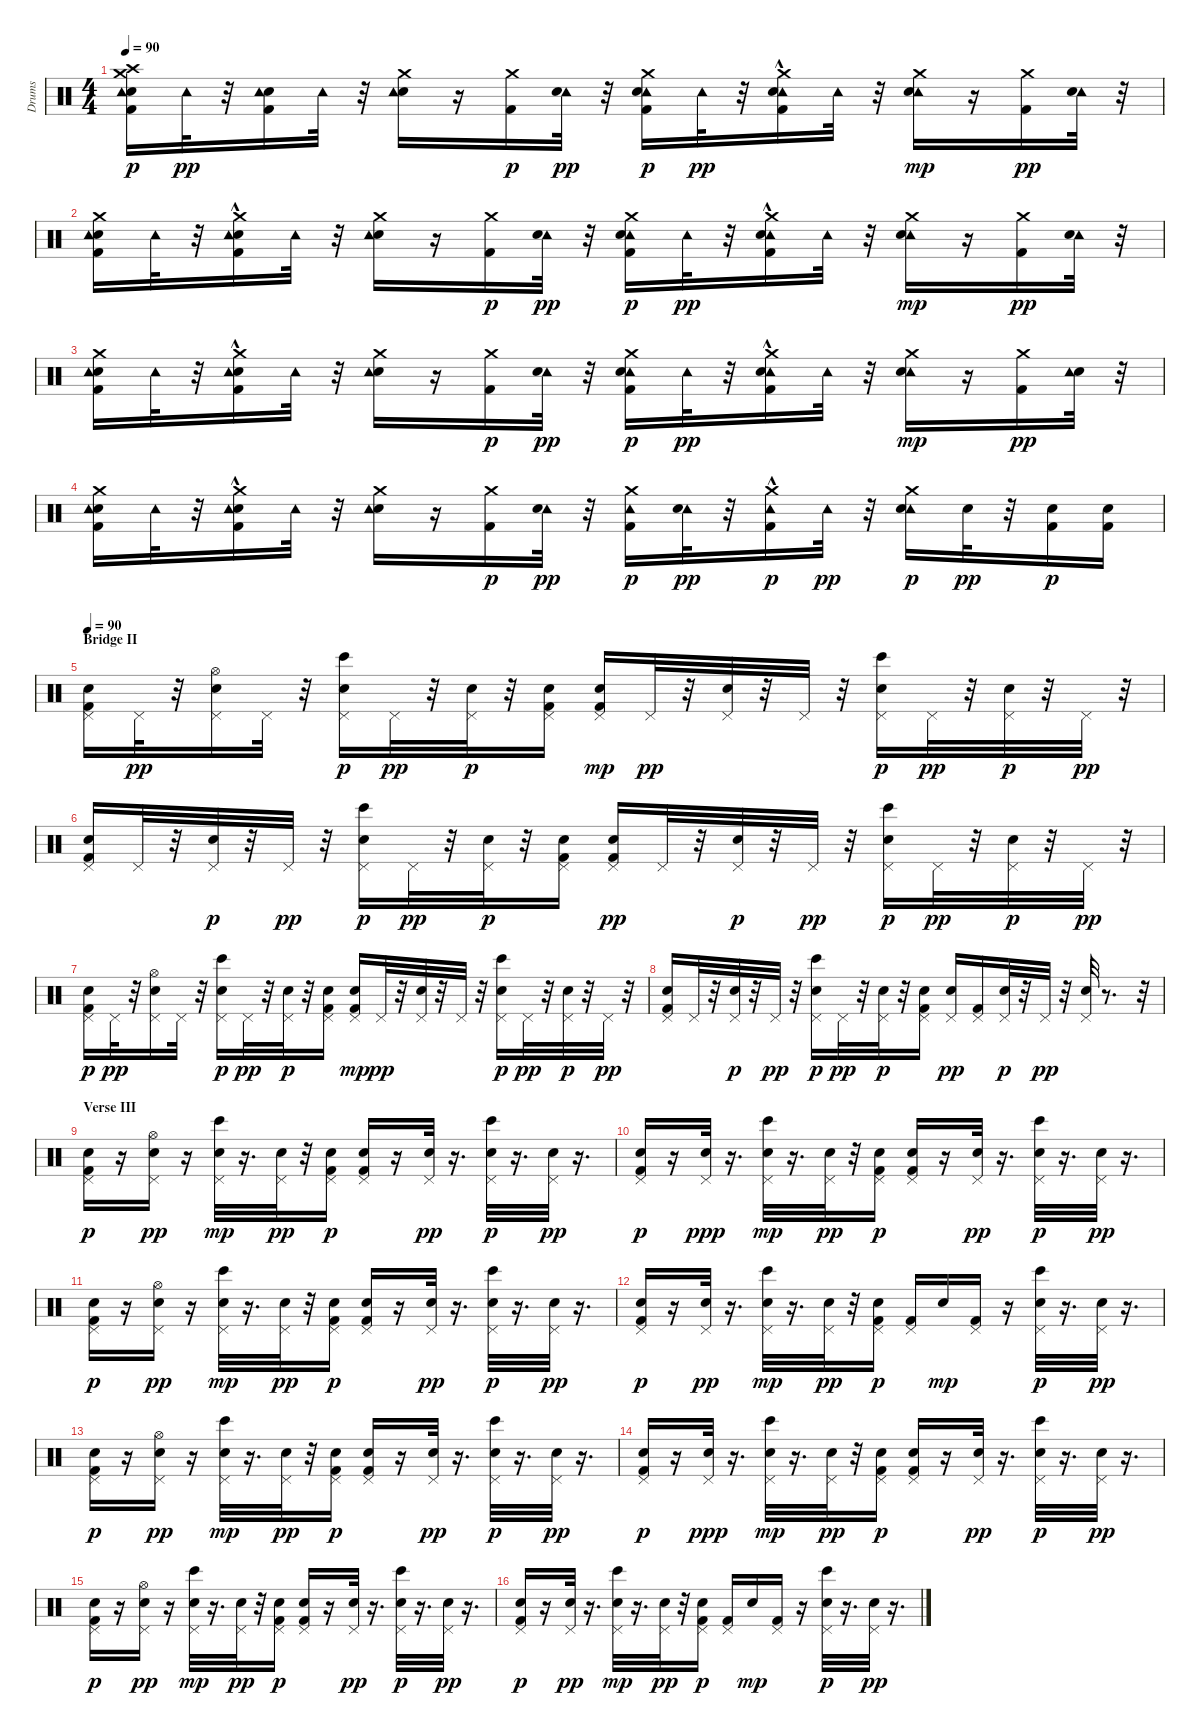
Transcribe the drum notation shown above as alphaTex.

\track ("Drums" "Drums") {instrument percussion}
\staff {score}
\articulation defaults
\ts (4 4)
\tempo 90
\clef neutral
\ks c
("Electric Snare (hit)" "Tambourine (hit)" "Kick (hit) 2" "Crash high (hit)" "Crash medium (hit)").16{dy p} "Tambourine (hit)".32{dy pp} r.32 ("Electric Snare (hit)" "Tambourine (hit)" "Kick (hit) 2").16 "Tambourine (hit)".32 r.32 ("Crash medium (hit)" "Electric Snare (hit)" "Tambourine (hit)").16 r.16 ("Crash medium (hit)" "Kick (hit) 2").16{dy p} ("Tambourine (hit)" "Electric Snare (hit)").32{dy pp} r.32 ("Crash medium (hit)" "Tambourine (hit)" "Electric Snare (hit)" "Kick (hit) 2").16{dy p} "Tambourine (hit)".32{dy pp} r.32 ("Crash medium (hit)"{hac} "Tambourine (hit)" "Electric Snare (hit)" "Kick (hit) 2").16 "Tambourine (hit)".32 r.32 ("Crash medium (hit)" "Tambourine (hit)" "Electric Snare (hit)").16{dy mp} r.16 ("Crash medium (hit)" "Kick (hit) 2").16{dy pp} ("Tambourine (hit)" "Electric Snare (hit)").32 r.32 |
("Crash medium (hit)" "Electric Snare (hit)" "Kick (hit) 2" "Tambourine (hit)").16 "Tambourine (hit)".32 r.32 ("Crash medium (hit)"{hac} "Electric Snare (hit)" "Kick (hit) 2" "Tambourine (hit)").16 "Tambourine (hit)".32 r.32 ("Crash medium (hit)" "Electric Snare (hit)" "Tambourine (hit)").16 r.16 ("Crash medium (hit)" "Kick (hit) 2").16{dy p} ("Tambourine (hit)" "Electric Snare (hit)").32{dy pp} r.32 ("Crash medium (hit)" "Tambourine (hit)" "Electric Snare (hit)" "Kick (hit) 2").16{dy p} "Tambourine (hit)".32{dy pp} r.32 ("Crash medium (hit)"{hac} "Tambourine (hit)" "Electric Snare (hit)" "Kick (hit) 2").16 "Tambourine (hit)".32 r.32 ("Crash medium (hit)" "Tambourine (hit)" "Electric Snare (hit)").16{dy mp} r.16 ("Crash medium (hit)" "Kick (hit) 2").16{dy pp} ("Tambourine (hit)" "Electric Snare (hit)").32 r.32 |
("Crash medium (hit)" "Kick (hit) 2" "Electric Snare (hit)" "Tambourine (hit)").16 "Tambourine (hit)".32 r.32 ("Crash medium (hit)"{hac} "Kick (hit) 2" "Electric Snare (hit)" "Tambourine (hit)").16 "Tambourine (hit)".32 r.32 ("Crash medium (hit)" "Electric Snare (hit)" "Tambourine (hit)").16 r.16 ("Crash medium (hit)" "Kick (hit) 2").16{dy p} ("Tambourine (hit)" "Electric Snare (hit)").32{dy pp} r.32 ("Crash medium (hit)" "Tambourine (hit)" "Electric Snare (hit)" "Kick (hit) 2").16{dy p} "Tambourine (hit)".32{dy pp} r.32 ("Crash medium (hit)"{hac} "Tambourine (hit)" "Electric Snare (hit)" "Kick (hit) 2").16 "Tambourine (hit)".32 r.32 ("Crash medium (hit)" "Tambourine (hit)" "Electric Snare (hit)").16{dy mp} r.16 ("Crash medium (hit)" "Kick (hit) 2").16{dy pp} ("Electric Snare (hit)" "Tambourine (hit)").32 r.32 |
("Crash medium (hit)" "Electric Snare (hit)" "Kick (hit) 2" "Tambourine (hit)").16 "Tambourine (hit)".32 r.32 ("Crash medium (hit)"{hac} "Electric Snare (hit)" "Kick (hit) 2" "Tambourine (hit)").16 "Tambourine (hit)".32 r.32 ("Crash medium (hit)" "Electric Snare (hit)" "Tambourine (hit)").16 r.16 ("Crash medium (hit)" "Kick (hit) 2").16{dy p} ("Tambourine (hit)" "Electric Snare (hit)").32{dy pp} r.32 ("Crash medium (hit)" "Tambourine (hit)" "Kick (hit) 2").16{dy p} ("Tambourine (hit)" "Electric Snare (hit)").32{dy pp} r.32 ("Crash medium (hit)"{hac} "Tambourine (hit)" "Kick (hit) 2").16{dy p} "Tambourine (hit)".32{dy pp} r.32 ("Crash medium (hit)" "Tambourine (hit)" "Electric Snare (hit)").16{dy p} "Electric Snare (hit)".32{dy pp} r.32 ("Electric Snare (hit)" "Kick (hit) 2").16{dy p} ("Kick (hit) 2" "Electric Snare (hit)").16 |
\section ("" "Bridge II")
\tempo 90
("Pedal Hi-Hat (hit)" "Snare (hit) 2" "Kick (hit) 2").16{volume 8 balance 8} "Pedal Hi-Hat (hit)".32{dy pp} r.32 ("Pedal Hi-Hat (hit)" "Snare (hit) 2" "Hi-Hat (open)").16 "Pedal Hi-Hat (hit)".32 r.32 ("Bongo High (hit)" "Pedal Hi-Hat (hit)" "Snare (hit) 2").16{dy p} "Pedal Hi-Hat (hit)".32{dy pp} r.32 ("Snare (hit) 2" "Pedal Hi-Hat (hit)").32{dy p} r.32 ("Pedal Hi-Hat (hit)" "Snare (hit) 2" "Kick (hit) 2").16 ("Kick (hit) 2" "Pedal Hi-Hat (hit)" "Snare (hit) 2").16{dy mp} "Pedal Hi-Hat (hit)".32{dy pp} r.32 ("Pedal Hi-Hat (hit)" "Snare (hit) 2").32 r.32 "Pedal Hi-Hat (hit)".32 r.32 ("Pedal Hi-Hat (hit)" "Snare (hit) 2" "Bongo High (hit)").16{dy p} "Pedal Hi-Hat (hit)".32{dy pp} r.32 ("Snare (hit) 2" "Pedal Hi-Hat (hit)").32{dy p} r.32 "Pedal Hi-Hat (hit)".32{dy pp} r.32 |
("Snare (hit) 2" "Kick (hit) 2" "Pedal Hi-Hat (hit)").16 "Pedal Hi-Hat (hit)".32 r.32 ("Snare (hit) 2" "Pedal Hi-Hat (hit)").32{dy p} r.32 "Pedal Hi-Hat (hit)".32{dy pp} r.32 ("Snare (hit) 2" "Bongo High (hit)" "Pedal Hi-Hat (hit)").16{dy p} "Pedal Hi-Hat (hit)".32{dy pp} r.32 ("Snare (hit) 2" "Pedal Hi-Hat (hit)").32{dy p} r.32 ("Snare (hit) 2" "Kick (hit) 2" "Pedal Hi-Hat (hit)").16 ("Kick (hit) 2" "Snare (hit) 2" "Pedal Hi-Hat (hit)").16{dy pp} "Pedal Hi-Hat (hit)".32 r.32 ("Snare (hit) 2" "Pedal Hi-Hat (hit)").32{dy p} r.32 "Pedal Hi-Hat (hit)".32{dy pp} r.32 ("Snare (hit) 2" "Pedal Hi-Hat (hit)" "Bongo High (hit)").16{dy p} "Pedal Hi-Hat (hit)".32{dy pp} r.32 ("Snare (hit) 2" "Pedal Hi-Hat (hit)").32{dy p} r.32 "Pedal Hi-Hat (hit)".32{dy pp} r.32 |
("Pedal Hi-Hat (hit)" "Snare (hit) 2" "Kick (hit) 2").16{dy p} "Pedal Hi-Hat (hit)".32{dy pp} r.32 ("Pedal Hi-Hat (hit)" "Snare (hit) 2" "Hi-Hat (open)").16 "Pedal Hi-Hat (hit)".32 r.32 ("Bongo High (hit)" "Pedal Hi-Hat (hit)" "Snare (hit) 2").16{dy p} "Pedal Hi-Hat (hit)".32{dy pp} r.32 ("Snare (hit) 2" "Pedal Hi-Hat (hit)").32{dy p} r.32 ("Pedal Hi-Hat (hit)" "Snare (hit) 2" "Kick (hit) 2").16 ("Kick (hit) 2" "Pedal Hi-Hat (hit)" "Snare (hit) 2").16{dy mp} "Pedal Hi-Hat (hit)".32{dy pp} r.32 ("Pedal Hi-Hat (hit)" "Snare (hit) 2").32 r.32 "Pedal Hi-Hat (hit)".32 r.32 ("Pedal Hi-Hat (hit)" "Snare (hit) 2" "Bongo High (hit)").16{dy p} "Pedal Hi-Hat (hit)".32{dy pp} r.32 ("Snare (hit) 2" "Pedal Hi-Hat (hit)").32{dy p} r.32 "Pedal Hi-Hat (hit)".32{dy pp} r.32 |
("Snare (hit) 2" "Kick (hit) 2" "Pedal Hi-Hat (hit)").16 "Pedal Hi-Hat (hit)".32 r.32 ("Snare (hit) 2" "Pedal Hi-Hat (hit)").32{dy p} r.32 "Pedal Hi-Hat (hit)".32{dy pp} r.32 ("Snare (hit) 2" "Bongo High (hit)" "Pedal Hi-Hat (hit)").16{dy p} "Pedal Hi-Hat (hit)".32{dy pp} r.32 ("Snare (hit) 2" "Pedal Hi-Hat (hit)").32{dy p} r.32 ("Snare (hit) 2" "Kick (hit) 2" "Pedal Hi-Hat (hit)").16 ("Snare (hit) 2" "Pedal Hi-Hat (hit)").16{dy pp} ("Pedal Hi-Hat (hit)" "Kick (hit) 2").16 ("Snare (hit) 2" "Pedal Hi-Hat (hit)").32{dy p} r.32 "Pedal Hi-Hat (hit)".32{dy pp} r.32 ("Snare (hit) 2" "Pedal Hi-Hat (hit)").32 r.8{d} r.32 |
\section ("" "Verse III")
("Pedal Hi-Hat (hit)" "Snare (hit) 2" "Kick (hit) 2").16{dy p} r.16 ("Pedal Hi-Hat (hit)" "Hi-Hat (open)" "Snare (hit) 2").16{dy pp} r.16 ("Pedal Hi-Hat (hit)" "Bongo High (hit)" "Snare (hit) 2").32{dy mp} r.16{d} ("Pedal Hi-Hat (hit)" "Snare (hit) 2").32{dy pp} r.32 ("Pedal Hi-Hat (hit)" "Snare (hit) 2" "Kick (hit) 2").16{dy p} ("Pedal Hi-Hat (hit)" "Kick (hit) 2" "Snare (hit) 2").16 r.16 ("Pedal Hi-Hat (hit)" "Snare (hit) 2").32{dy pp} r.16{d} ("Pedal Hi-Hat (hit)" "Snare (hit) 2" "Bongo High (hit)").32{dy p} r.16{d} ("Pedal Hi-Hat (hit)" "Snare (hit) 2").32{dy pp} r.16{d} |
("Pedal Hi-Hat (hit)" "Snare (hit) 2" "Kick (hit) 2").16{dy p} r.16 ("Pedal Hi-Hat (hit)" "Snare (hit) 2").32{dy ppp} r.16{d} ("Pedal Hi-Hat (hit)" "Bongo High (hit)" "Snare (hit) 2").32{dy mp} r.16{d} ("Pedal Hi-Hat (hit)" "Snare (hit) 2").32{dy pp} r.32 ("Pedal Hi-Hat (hit)" "Snare (hit) 2" "Kick (hit) 2").16{dy p} ("Pedal Hi-Hat (hit)" "Kick (hit) 2" "Snare (hit) 2").16 r.16 ("Pedal Hi-Hat (hit)" "Snare (hit) 2").32{dy pp} r.16{d} ("Pedal Hi-Hat (hit)" "Snare (hit) 2" "Bongo High (hit)").32{dy p} r.16{d} ("Pedal Hi-Hat (hit)" "Snare (hit) 2").32{dy pp} r.16{d} |
("Pedal Hi-Hat (hit)" "Snare (hit) 2" "Kick (hit) 2").16{dy p} r.16 ("Hi-Hat (open)" "Pedal Hi-Hat (hit)" "Snare (hit) 2").16{dy pp} r.16 ("Pedal Hi-Hat (hit)" "Bongo High (hit)" "Snare (hit) 2").32{dy mp} r.16{d} ("Pedal Hi-Hat (hit)" "Snare (hit) 2").32{dy pp} r.32 ("Pedal Hi-Hat (hit)" "Snare (hit) 2" "Kick (hit) 2").16{dy p} ("Pedal Hi-Hat (hit)" "Kick (hit) 2" "Snare (hit) 2").16 r.16 ("Pedal Hi-Hat (hit)" "Snare (hit) 2").32{dy pp} r.16{d} ("Pedal Hi-Hat (hit)" "Snare (hit) 2" "Bongo High (hit)").32{dy p} r.16{d} ("Pedal Hi-Hat (hit)" "Snare (hit) 2").32{dy pp} r.16{d} |
("Pedal Hi-Hat (hit)" "Snare (hit) 2" "Kick (hit) 2").16{dy p} r.16 ("Pedal Hi-Hat (hit)" "Snare (hit) 2").32{dy pp} r.16{d} ("Pedal Hi-Hat (hit)" "Bongo High (hit)" "Snare (hit) 2").32{dy mp} r.16{d} ("Pedal Hi-Hat (hit)" "Snare (hit) 2").32{dy pp} r.32 ("Pedal Hi-Hat (hit)" "Snare (hit) 2" "Kick (hit) 2").16{dy p} ("Pedal Hi-Hat (hit)" "Kick (hit) 2").16 "Snare (hit) 2".16{dy mp} ("Kick (hit) 2" "Pedal Hi-Hat (hit)").16 r.16 ("Pedal Hi-Hat (hit)" "Snare (hit) 2" "Bongo High (hit)").32{dy p} r.16{d} ("Pedal Hi-Hat (hit)" "Snare (hit) 2").32{dy pp} r.16{d} |
("Pedal Hi-Hat (hit)" "Snare (hit) 2" "Kick (hit) 2").16{dy p} r.16 ("Pedal Hi-Hat (hit)" "Hi-Hat (open)" "Snare (hit) 2").16{dy pp} r.16 ("Pedal Hi-Hat (hit)" "Bongo High (hit)" "Snare (hit) 2").32{dy mp} r.16{d} ("Pedal Hi-Hat (hit)" "Snare (hit) 2").32{dy pp} r.32 ("Pedal Hi-Hat (hit)" "Snare (hit) 2" "Kick (hit) 2").16{dy p} ("Pedal Hi-Hat (hit)" "Kick (hit) 2" "Snare (hit) 2").16 r.16 ("Pedal Hi-Hat (hit)" "Snare (hit) 2").32{dy pp} r.16{d} ("Pedal Hi-Hat (hit)" "Snare (hit) 2" "Bongo High (hit)").32{dy p} r.16{d} ("Pedal Hi-Hat (hit)" "Snare (hit) 2").32{dy pp} r.16{d} |
("Pedal Hi-Hat (hit)" "Snare (hit) 2" "Kick (hit) 2").16{dy p} r.16 ("Pedal Hi-Hat (hit)" "Snare (hit) 2").32{dy ppp} r.16{d} ("Pedal Hi-Hat (hit)" "Bongo High (hit)" "Snare (hit) 2").32{dy mp} r.16{d} ("Pedal Hi-Hat (hit)" "Snare (hit) 2").32{dy pp} r.32 ("Pedal Hi-Hat (hit)" "Snare (hit) 2" "Kick (hit) 2").16{dy p} ("Pedal Hi-Hat (hit)" "Kick (hit) 2" "Snare (hit) 2").16 r.16 ("Pedal Hi-Hat (hit)" "Snare (hit) 2").32{dy pp} r.16{d} ("Pedal Hi-Hat (hit)" "Snare (hit) 2" "Bongo High (hit)").32{dy p} r.16{d} ("Pedal Hi-Hat (hit)" "Snare (hit) 2").32{dy pp} r.16{d} |
("Pedal Hi-Hat (hit)" "Snare (hit) 2" "Kick (hit) 2").16{dy p} r.16 ("Hi-Hat (open)" "Pedal Hi-Hat (hit)" "Snare (hit) 2").16{dy pp} r.16 ("Pedal Hi-Hat (hit)" "Bongo High (hit)" "Snare (hit) 2").32{dy mp} r.16{d} ("Pedal Hi-Hat (hit)" "Snare (hit) 2").32{dy pp} r.32 ("Pedal Hi-Hat (hit)" "Snare (hit) 2" "Kick (hit) 2").16{dy p} ("Pedal Hi-Hat (hit)" "Kick (hit) 2" "Snare (hit) 2").16 r.16 ("Pedal Hi-Hat (hit)" "Snare (hit) 2").32{dy pp} r.16{d} ("Pedal Hi-Hat (hit)" "Snare (hit) 2" "Bongo High (hit)").32{dy p} r.16{d} ("Pedal Hi-Hat (hit)" "Snare (hit) 2").32{dy pp} r.16{d} |
("Pedal Hi-Hat (hit)" "Snare (hit) 2" "Kick (hit) 2").16{dy p} r.16 ("Pedal Hi-Hat (hit)" "Snare (hit) 2").32{dy pp} r.16{d} ("Pedal Hi-Hat (hit)" "Bongo High (hit)" "Snare (hit) 2").32{dy mp} r.16{d} ("Pedal Hi-Hat (hit)" "Snare (hit) 2").32{dy pp} r.32 ("Pedal Hi-Hat (hit)" "Snare (hit) 2" "Kick (hit) 2").16{dy p} ("Pedal Hi-Hat (hit)" "Kick (hit) 2").16 "Snare (hit) 2".16{dy mp} ("Kick (hit) 2" "Pedal Hi-Hat (hit)").16 r.16 ("Pedal Hi-Hat (hit)" "Snare (hit) 2" "Bongo High (hit)").32{dy p} r.16{d} ("Pedal Hi-Hat (hit)" "Snare (hit) 2").32{dy pp} r.16{d}
